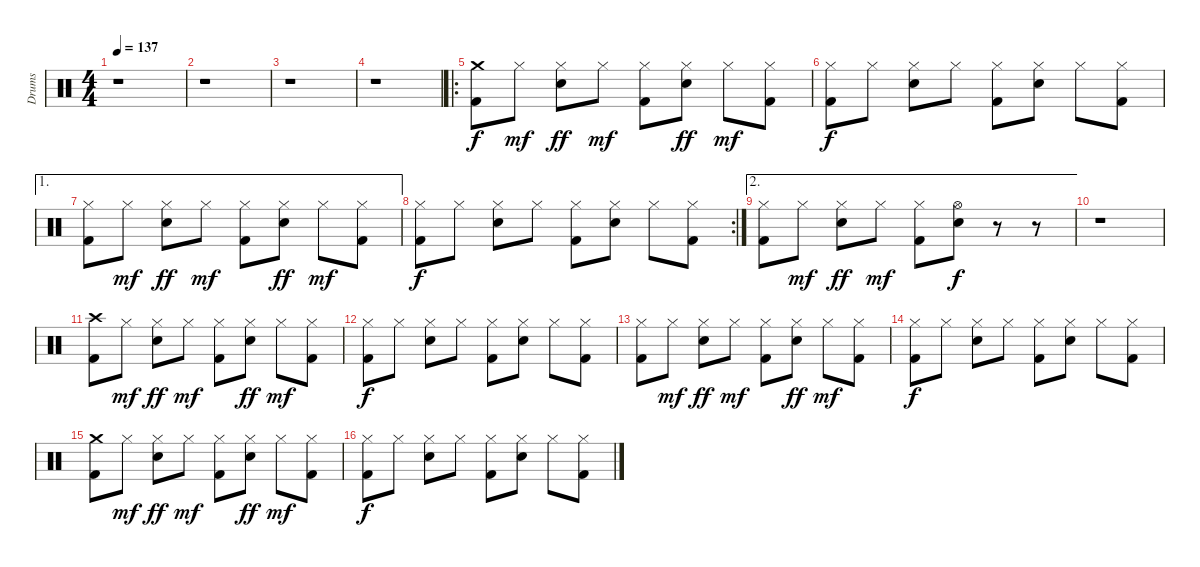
\track ("Drums" "Drums") {instrument percussion}
\staff {score}
\articulation defaults
\ts (4 4)
\tempo 137
\clef neutral
\ks c
r.1{dy f} |
r.1 |
r.1 |
r.1 |
\ro
("Crash medium (hit)" "Kick (hit) 2").8 "Hi-Hat (closed)".8{dy mf} ("Hi-Hat (closed)" "Electric Snare (hit)").8{dy ff} "Hi-Hat (closed)".8{dy mf} ("Hi-Hat (closed)" "Kick (hit) 2").8 ("Hi-Hat (closed)" "Electric Snare (hit)").8{dy ff} "Hi-Hat (closed)".8{dy mf} ("Hi-Hat (closed)" "Kick (hit) 2").8 |
("Hi-Hat (closed)" "Kick (hit) 2").8{dy f} "Hi-Hat (closed)".8 ("Hi-Hat (closed)" "Electric Snare (hit)").8 "Hi-Hat (closed)".8 ("Hi-Hat (closed)" "Kick (hit) 2").8 ("Hi-Hat (closed)" "Electric Snare (hit)").8 "Hi-Hat (closed)".8 ("Hi-Hat (closed)" "Kick (hit) 2").8 |
\ae 1
("Hi-Hat (closed)" "Kick (hit) 2").8 "Hi-Hat (closed)".8{dy mf} ("Hi-Hat (closed)" "Electric Snare (hit)").8{dy ff} "Hi-Hat (closed)".8{dy mf} ("Hi-Hat (closed)" "Kick (hit) 2").8 ("Hi-Hat (closed)" "Electric Snare (hit)").8{dy ff} "Hi-Hat (closed)".8{dy mf} ("Hi-Hat (closed)" "Kick (hit) 2").8 |
\rc 2
("Hi-Hat (closed)" "Kick (hit) 2").8{dy f} "Hi-Hat (closed)".8 ("Hi-Hat (closed)" "Electric Snare (hit)").8 "Hi-Hat (closed)".8 ("Hi-Hat (closed)" "Kick (hit) 2").8 ("Hi-Hat (closed)" "Electric Snare (hit)").8 "Hi-Hat (closed)".8 ("Hi-Hat (closed)" "Kick (hit) 2").8 |
\ae 2
("Hi-Hat (closed)" "Kick (hit) 2").8 "Hi-Hat (closed)".8{dy mf} ("Hi-Hat (closed)" "Electric Snare (hit)").8{dy ff} "Hi-Hat (closed)".8{dy mf} ("Hi-Hat (closed)" "Kick (hit) 2").8 ("Hi-Hat (open)" "Electric Snare (hit)").8{dy f} r.8 r.8 |
r.1 |
("Crash high (hit)" "Kick (hit) 2").8 "Hi-Hat (closed)".8{dy mf} ("Hi-Hat (closed)" "Electric Snare (hit)").8{dy ff} "Hi-Hat (closed)".8{dy mf} ("Hi-Hat (closed)" "Kick (hit) 2").8 ("Hi-Hat (closed)" "Electric Snare (hit)").8{dy ff} "Hi-Hat (closed)".8{dy mf} ("Hi-Hat (closed)" "Kick (hit) 2").8 |
("Hi-Hat (closed)" "Kick (hit) 2").8{dy f} "Hi-Hat (closed)".8 ("Hi-Hat (closed)" "Electric Snare (hit)").8 "Hi-Hat (closed)".8 ("Hi-Hat (closed)" "Kick (hit) 2").8 ("Hi-Hat (closed)" "Electric Snare (hit)").8 "Hi-Hat (closed)".8 ("Hi-Hat (closed)" "Kick (hit) 2").8 |
("Hi-Hat (closed)" "Kick (hit) 2").8 "Hi-Hat (closed)".8{dy mf} ("Hi-Hat (closed)" "Electric Snare (hit)").8{dy ff} "Hi-Hat (closed)".8{dy mf} ("Hi-Hat (closed)" "Kick (hit) 2").8 ("Hi-Hat (closed)" "Electric Snare (hit)").8{dy ff} "Hi-Hat (closed)".8{dy mf} ("Hi-Hat (closed)" "Kick (hit) 2").8 |
("Hi-Hat (closed)" "Kick (hit) 2").8{dy f} "Hi-Hat (closed)".8 ("Hi-Hat (closed)" "Electric Snare (hit)").8 "Hi-Hat (closed)".8 ("Hi-Hat (closed)" "Kick (hit) 2").8 ("Hi-Hat (closed)" "Electric Snare (hit)").8 "Hi-Hat (closed)".8 ("Hi-Hat (closed)" "Kick (hit) 2").8 |
("Crash medium (hit)" "Kick (hit) 2").8 "Hi-Hat (closed)".8{dy mf} ("Hi-Hat (closed)" "Electric Snare (hit)").8{dy ff} "Hi-Hat (closed)".8{dy mf} ("Hi-Hat (closed)" "Kick (hit) 2").8 ("Hi-Hat (closed)" "Electric Snare (hit)").8{dy ff} "Hi-Hat (closed)".8{dy mf} ("Hi-Hat (closed)" "Kick (hit) 2").8 |
("Hi-Hat (closed)" "Kick (hit) 2").8{dy f} "Hi-Hat (closed)".8 ("Hi-Hat (closed)" "Electric Snare (hit)").8 "Hi-Hat (closed)".8 ("Hi-Hat (closed)" "Kick (hit) 2").8 ("Hi-Hat (closed)" "Electric Snare (hit)").8 "Hi-Hat (closed)".8 ("Hi-Hat (closed)" "Kick (hit) 2").8
